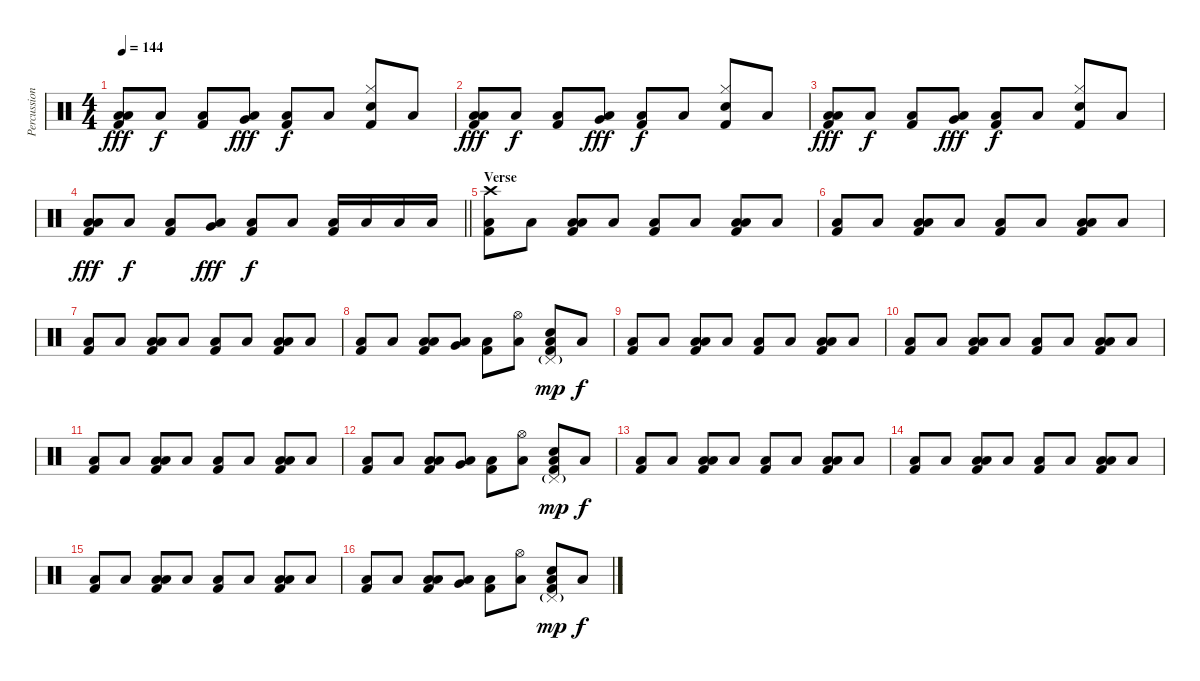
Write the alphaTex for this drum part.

\track ("Percussion" "Percussion") {instrument percussion}
\staff {score}
\articulation defaults
\ts (4 4)
\tempo 144
\clef neutral
\ks c
("Low Tom (hit)" "Low Floor Tom (hit)" "Kick (hit) 2").8{dy fff} "Low Floor Tom (hit)".8{dy f} ("Low Floor Tom (hit)" "Kick (hit) 2").8 ("Very Low Tom (hit)" "Low Floor Tom (hit)").8{dy fff} ("Low Floor Tom (hit)" "Kick (hit) 2").8{dy f} "Low Floor Tom (hit)".8 ("Hi-Hat (closed)" "Electric Snare (hit)" "Kick (hit) 2").8 "Low Floor Tom (hit)".8 |
("Low Tom (hit)" "Low Floor Tom (hit)" "Kick (hit) 2").8{dy fff} "Low Floor Tom (hit)".8{dy f} ("Low Floor Tom (hit)" "Kick (hit) 2").8 ("Very Low Tom (hit)" "Low Floor Tom (hit)").8{dy fff} ("Low Floor Tom (hit)" "Kick (hit) 2").8{dy f} "Low Floor Tom (hit)".8 ("Hi-Hat (closed)" "Electric Snare (hit)" "Kick (hit) 2").8 "Low Floor Tom (hit)".8 |
("Low Tom (hit)" "Low Floor Tom (hit)" "Kick (hit) 2").8{dy fff} "Low Floor Tom (hit)".8{dy f} ("Low Floor Tom (hit)" "Kick (hit) 2").8 ("Very Low Tom (hit)" "Low Floor Tom (hit)").8{dy fff} ("Low Floor Tom (hit)" "Kick (hit) 2").8{dy f} "Low Floor Tom (hit)".8 ("Hi-Hat (closed)" "Electric Snare (hit)" "Kick (hit) 2").8 "Low Floor Tom (hit)".8 |
\barLineRight lightlight
("Low Tom (hit)" "Low Floor Tom (hit)" "Kick (hit) 2").8{dy fff} "Low Floor Tom (hit)".8{dy f} ("Low Floor Tom (hit)" "Kick (hit) 2").8 ("Very Low Tom (hit)" "Low Floor Tom (hit)").8{dy fff} ("Low Floor Tom (hit)" "Kick (hit) 2").8{dy f} "Low Floor Tom (hit)".8 ("Low Tom (hit)" "Kick (hit) 2").16 "Low Tom (hit)".16 "Low Tom (hit)".16 "Low Tom (hit)".16 |
\section ("" "Verse")
("Crash high (hit)" "Low Floor Tom (hit)" "Kick (hit) 2").8 "Low Floor Tom (hit)".8 ("Low Tom (hit)" "Low Floor Tom (hit)" "Kick (hit) 2").8 "Low Floor Tom (hit)".8 ("Low Floor Tom (hit)" "Kick (hit) 2").8 "Low Floor Tom (hit)".8 ("Low Tom (hit)" "Low Floor Tom (hit)" "Kick (hit) 2").8 "Low Floor Tom (hit)".8 |
("Low Floor Tom (hit)" "Kick (hit) 2").8 "Low Floor Tom (hit)".8 ("Low Tom (hit)" "Low Floor Tom (hit)" "Kick (hit) 2").8 "Low Floor Tom (hit)".8 ("Low Floor Tom (hit)" "Kick (hit) 2").8 "Low Floor Tom (hit)".8 ("Low Tom (hit)" "Low Floor Tom (hit)" "Kick (hit) 2").8 "Low Floor Tom (hit)".8 |
("Low Floor Tom (hit)" "Kick (hit) 2").8 "Low Floor Tom (hit)".8 ("Low Tom (hit)" "Low Floor Tom (hit)" "Kick (hit) 2").8 "Low Floor Tom (hit)".8 ("Low Floor Tom (hit)" "Kick (hit) 2").8 "Low Floor Tom (hit)".8 ("Low Tom (hit)" "Low Floor Tom (hit)" "Kick (hit) 2").8 "Low Floor Tom (hit)".8 |
("Low Floor Tom (hit)" "Kick (hit) 2").8 "Low Floor Tom (hit)".8 ("Low Tom (hit)" "Low Floor Tom (hit)" "Kick (hit) 2").8 ("Very Low Tom (hit)" "Low Floor Tom (hit)").8 ("Low Floor Tom (hit)" "Kick (hit) 2").8 ("Hi-Hat (open)" "Low Floor Tom (hit)").8 ("Pedal Hi-Hat (hit)"{g} "Electric Snare (hit)" "Low Floor Tom (hit)" "Kick (hit) 2").8{dy mp} "Low Floor Tom (hit)".8{dy f} |
("Low Floor Tom (hit)" "Kick (hit) 2").8 "Low Floor Tom (hit)".8 ("Low Tom (hit)" "Low Floor Tom (hit)" "Kick (hit) 2").8 "Low Floor Tom (hit)".8 ("Low Floor Tom (hit)" "Kick (hit) 2").8 "Low Floor Tom (hit)".8 ("Low Tom (hit)" "Low Floor Tom (hit)" "Kick (hit) 2").8 "Low Floor Tom (hit)".8 |
("Low Floor Tom (hit)" "Kick (hit) 2").8 "Low Floor Tom (hit)".8 ("Low Tom (hit)" "Low Floor Tom (hit)" "Kick (hit) 2").8 "Low Floor Tom (hit)".8 ("Low Floor Tom (hit)" "Kick (hit) 2").8 "Low Floor Tom (hit)".8 ("Low Tom (hit)" "Low Floor Tom (hit)" "Kick (hit) 2").8 "Low Floor Tom (hit)".8 |
("Low Floor Tom (hit)" "Kick (hit) 2").8 "Low Floor Tom (hit)".8 ("Low Tom (hit)" "Low Floor Tom (hit)" "Kick (hit) 2").8 "Low Floor Tom (hit)".8 ("Low Floor Tom (hit)" "Kick (hit) 2").8 "Low Floor Tom (hit)".8 ("Low Tom (hit)" "Low Floor Tom (hit)" "Kick (hit) 2").8 "Low Floor Tom (hit)".8 |
("Low Floor Tom (hit)" "Kick (hit) 2").8 "Low Floor Tom (hit)".8 ("Low Tom (hit)" "Low Floor Tom (hit)" "Kick (hit) 2").8 ("Very Low Tom (hit)" "Low Floor Tom (hit)").8 ("Low Floor Tom (hit)" "Kick (hit) 2").8 ("Hi-Hat (open)" "Low Floor Tom (hit)").8 ("Pedal Hi-Hat (hit)"{g} "Electric Snare (hit)" "Low Floor Tom (hit)" "Kick (hit) 2").8{dy mp} "Low Floor Tom (hit)".8{dy f} |
("Low Floor Tom (hit)" "Kick (hit) 2").8 "Low Floor Tom (hit)".8 ("Low Tom (hit)" "Low Floor Tom (hit)" "Kick (hit) 2").8 "Low Floor Tom (hit)".8 ("Low Floor Tom (hit)" "Kick (hit) 2").8 "Low Floor Tom (hit)".8 ("Low Tom (hit)" "Low Floor Tom (hit)" "Kick (hit) 2").8 "Low Floor Tom (hit)".8 |
("Low Floor Tom (hit)" "Kick (hit) 2").8 "Low Floor Tom (hit)".8 ("Low Tom (hit)" "Low Floor Tom (hit)" "Kick (hit) 2").8 "Low Floor Tom (hit)".8 ("Low Floor Tom (hit)" "Kick (hit) 2").8 "Low Floor Tom (hit)".8 ("Low Tom (hit)" "Low Floor Tom (hit)" "Kick (hit) 2").8 "Low Floor Tom (hit)".8 |
("Low Floor Tom (hit)" "Kick (hit) 2").8 "Low Floor Tom (hit)".8 ("Low Tom (hit)" "Low Floor Tom (hit)" "Kick (hit) 2").8 "Low Floor Tom (hit)".8 ("Low Floor Tom (hit)" "Kick (hit) 2").8 "Low Floor Tom (hit)".8 ("Low Tom (hit)" "Low Floor Tom (hit)" "Kick (hit) 2").8 "Low Floor Tom (hit)".8 |
("Low Floor Tom (hit)" "Kick (hit) 2").8 "Low Floor Tom (hit)".8 ("Low Tom (hit)" "Low Floor Tom (hit)" "Kick (hit) 2").8 ("Very Low Tom (hit)" "Low Floor Tom (hit)").8 ("Low Floor Tom (hit)" "Kick (hit) 2").8 ("Hi-Hat (open)" "Low Floor Tom (hit)").8 ("Pedal Hi-Hat (hit)"{g} "Electric Snare (hit)" "Low Floor Tom (hit)" "Kick (hit) 2").8{dy mp} "Low Floor Tom (hit)".8{dy f}
